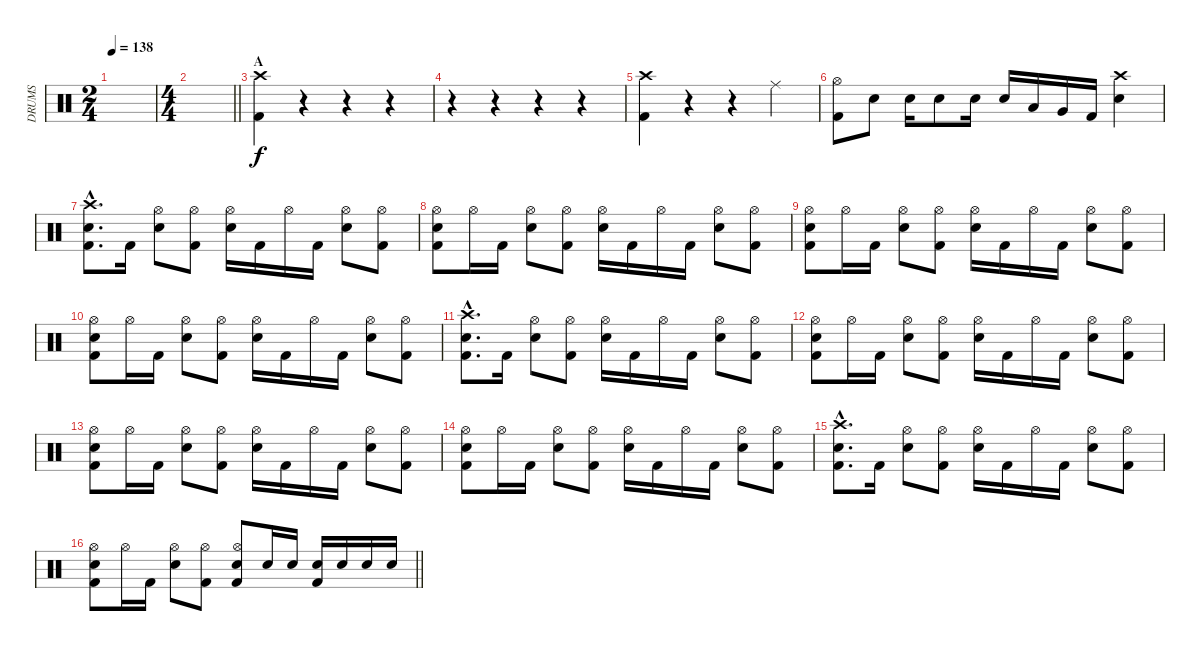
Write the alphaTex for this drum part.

\track ("DRUMS" "DRUMS") {instrument percussion}
\staff {score}
\articulation defaults
\ts (2 4)
\tempo 138
\clef neutral
\ks c
|
\ts (4 4)
\barLineRight lightlight
|
\section ("" "A")
("Crash high (hit)" "Kick (hit) 2").4 r.4 r.4 r.4 |
r.4 r.4 r.4 r.4 |
("Crash high (hit)" "Kick (hit) 2").4 r.4 r.4 "Ride (middle)".4 |
("Hi-Hat (open)" "Kick (hit) 2").8 "Snare (hit) 2".8 "Snare (hit) 2".16 "Snare (hit) 2".8 "Snare (hit) 2".16 "Snare (hit) 2".16 "Low Tom (hit)".16 "Very Low Tom (hit)".16 "Kick (hit) 2".16 ("Crash high (hit)" "Snare (hit) 2").4 |
("Crash high (hit)"{hac} "Snare (hit) 2"{hac} "Kick (hit) 2"{hac}).8{d} "Kick (hit) 2".16 ("Hi-Hat (open)" "Snare (hit) 2").8 ("Hi-Hat (open)" "Kick (hit) 2").8 ("Hi-Hat (open)" "Snare (hit) 2").16 "Kick (hit) 2".16 "Hi-Hat (open)".16 "Kick (hit) 2".16 ("Hi-Hat (open)" "Snare (hit) 2").8 ("Hi-Hat (open)" "Kick (hit) 2").8 |
("Hi-Hat (open)" "Snare (hit) 2" "Kick (hit) 2").8 "Hi-Hat (open)".16 "Kick (hit) 2".16 ("Hi-Hat (open)" "Snare (hit) 2").8 ("Hi-Hat (open)" "Kick (hit) 2").8 ("Hi-Hat (open)" "Snare (hit) 2").16 "Kick (hit) 2".16 "Hi-Hat (open)".16 "Kick (hit) 2".16 ("Hi-Hat (open)" "Snare (hit) 2").8 ("Hi-Hat (open)" "Kick (hit) 2").8 |
("Hi-Hat (open)" "Snare (hit) 2" "Kick (hit) 2").8 "Hi-Hat (open)".16 "Kick (hit) 2".16 ("Hi-Hat (open)" "Snare (hit) 2").8 ("Hi-Hat (open)" "Kick (hit) 2").8 ("Hi-Hat (open)" "Snare (hit) 2").16 "Kick (hit) 2".16 "Hi-Hat (open)".16 "Kick (hit) 2".16 ("Hi-Hat (open)" "Snare (hit) 2").8 ("Hi-Hat (open)" "Kick (hit) 2").8 |
("Hi-Hat (open)" "Snare (hit) 2" "Kick (hit) 2").8 "Hi-Hat (open)".16 "Kick (hit) 2".16 ("Hi-Hat (open)" "Snare (hit) 2").8 ("Hi-Hat (open)" "Kick (hit) 2").8 ("Hi-Hat (open)" "Snare (hit) 2").16 "Kick (hit) 2".16 "Hi-Hat (open)".16 "Kick (hit) 2".16 ("Hi-Hat (open)" "Snare (hit) 2").8 ("Hi-Hat (open)" "Kick (hit) 2").8 |
("Crash high (hit)"{hac} "Snare (hit) 2"{hac} "Kick (hit) 2"{hac}).8{d} "Kick (hit) 2".16 ("Hi-Hat (open)" "Snare (hit) 2").8 ("Hi-Hat (open)" "Kick (hit) 2").8 ("Hi-Hat (open)" "Snare (hit) 2").16 "Kick (hit) 2".16 "Hi-Hat (open)".16 "Kick (hit) 2".16 ("Hi-Hat (open)" "Snare (hit) 2").8 ("Hi-Hat (open)" "Kick (hit) 2").8 |
("Hi-Hat (open)" "Snare (hit) 2" "Kick (hit) 2").8 "Hi-Hat (open)".16 "Kick (hit) 2".16 ("Hi-Hat (open)" "Snare (hit) 2").8 ("Hi-Hat (open)" "Kick (hit) 2").8 ("Hi-Hat (open)" "Snare (hit) 2").16 "Kick (hit) 2".16 "Hi-Hat (open)".16 "Kick (hit) 2".16 ("Hi-Hat (open)" "Snare (hit) 2").8 ("Hi-Hat (open)" "Kick (hit) 2").8 |
("Hi-Hat (open)" "Snare (hit) 2" "Kick (hit) 2").8 "Hi-Hat (open)".16 "Kick (hit) 2".16 ("Hi-Hat (open)" "Snare (hit) 2").8 ("Hi-Hat (open)" "Kick (hit) 2").8 ("Hi-Hat (open)" "Snare (hit) 2").16 "Kick (hit) 2".16 "Hi-Hat (open)".16 "Kick (hit) 2".16 ("Hi-Hat (open)" "Snare (hit) 2").8 ("Hi-Hat (open)" "Kick (hit) 2").8 |
("Hi-Hat (open)" "Snare (hit) 2" "Kick (hit) 2").8 "Hi-Hat (open)".16 "Kick (hit) 2".16 ("Hi-Hat (open)" "Snare (hit) 2").8 ("Hi-Hat (open)" "Kick (hit) 2").8 ("Hi-Hat (open)" "Snare (hit) 2").16 "Kick (hit) 2".16 "Hi-Hat (open)".16 "Kick (hit) 2".16 ("Hi-Hat (open)" "Snare (hit) 2").8 ("Hi-Hat (open)" "Kick (hit) 2").8 |
("Crash high (hit)"{hac} "Snare (hit) 2"{hac} "Kick (hit) 2"{hac}).8{d} "Kick (hit) 2".16 ("Hi-Hat (open)" "Snare (hit) 2").8 ("Hi-Hat (open)" "Kick (hit) 2").8 ("Hi-Hat (open)" "Snare (hit) 2").16 "Kick (hit) 2".16 "Hi-Hat (open)".16 "Kick (hit) 2".16 ("Hi-Hat (open)" "Snare (hit) 2").8 ("Hi-Hat (open)" "Kick (hit) 2").8 |
\barLineRight lightlight
("Hi-Hat (open)" "Snare (hit) 2" "Kick (hit) 2").8 "Hi-Hat (open)".16 "Kick (hit) 2".16 ("Hi-Hat (open)" "Snare (hit) 2").8 ("Hi-Hat (open)" "Kick (hit) 2").8 ("Hi-Hat (open)" "Snare (hit) 2" "Kick (hit) 2").8 "Snare (hit) 2".16 "Snare (hit) 2".16 ("Snare (hit) 2" "Kick (hit) 2").16 "Snare (hit) 2".16 "Snare (hit) 2".16 "Snare (hit) 2".16
